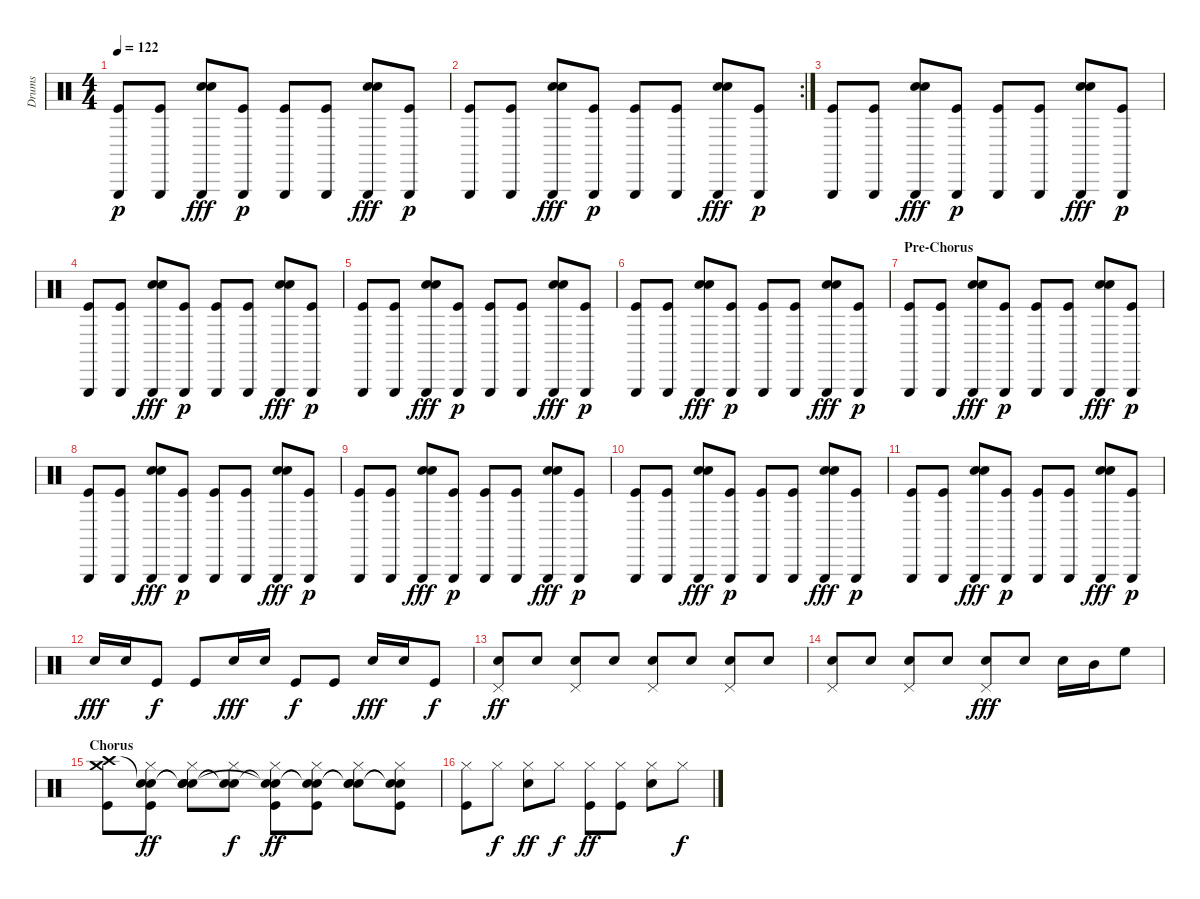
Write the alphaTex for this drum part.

\track ("Drums" "Drums") {instrument percussion}
\staff {score}
\articulation defaults
\ts (4 4)
\tempo 122
\clef neutral
\ks c
("Triangle (hit)" "Kick (hit)").8{dy p} ("Triangle (hit)" "Kick (hit)").8 ("Triangle (hit)" "Snare (hit) 2" "Hand Clap (hit)").8{dy fff} ("Triangle (hit)" "Kick (hit)").8{dy p} ("Triangle (hit)" "Kick (hit)").8 ("Triangle (hit)" "Kick (hit)").8 ("Triangle (hit)" "Snare (hit) 2" "Hand Clap (hit)").8{dy fff} ("Triangle (hit)" "Kick (hit)").8{dy p} |
\rc 2
("Triangle (hit)" "Kick (hit)").8 ("Triangle (hit)" "Kick (hit)").8 ("Triangle (hit)" "Snare (hit) 2" "Hand Clap (hit)").8{dy fff} ("Triangle (hit)" "Kick (hit)").8{dy p} ("Triangle (hit)" "Kick (hit)").8 ("Triangle (hit)" "Kick (hit)").8 ("Triangle (hit)" "Snare (hit) 2" "Hand Clap (hit)").8{dy fff} ("Triangle (hit)" "Kick (hit)").8{dy p} |
("Triangle (hit)" "Kick (hit)").8 ("Triangle (hit)" "Kick (hit)").8 ("Triangle (hit)" "Snare (hit) 2" "Hand Clap (hit)").8{dy fff} ("Triangle (hit)" "Kick (hit)").8{dy p} ("Triangle (hit)" "Kick (hit)").8 ("Triangle (hit)" "Kick (hit)").8 ("Triangle (hit)" "Snare (hit) 2" "Hand Clap (hit)").8{dy fff} ("Triangle (hit)" "Kick (hit)").8{dy p} |
("Triangle (hit)" "Kick (hit)").8 ("Triangle (hit)" "Kick (hit)").8 ("Triangle (hit)" "Snare (hit) 2" "Hand Clap (hit)").8{dy fff} ("Triangle (hit)" "Kick (hit)").8{dy p} ("Triangle (hit)" "Kick (hit)").8 ("Triangle (hit)" "Kick (hit)").8 ("Triangle (hit)" "Snare (hit) 2" "Hand Clap (hit)").8{dy fff} ("Triangle (hit)" "Kick (hit)").8{dy p} |
("Triangle (hit)" "Kick (hit)").8 ("Triangle (hit)" "Kick (hit)").8 ("Triangle (hit)" "Snare (hit) 2" "Hand Clap (hit)").8{dy fff} ("Triangle (hit)" "Kick (hit)").8{dy p} ("Triangle (hit)" "Kick (hit)").8 ("Triangle (hit)" "Kick (hit)").8 ("Triangle (hit)" "Snare (hit) 2" "Hand Clap (hit)").8{dy fff} ("Triangle (hit)" "Kick (hit)").8{dy p} |
("Triangle (hit)" "Kick (hit)").8 ("Triangle (hit)" "Kick (hit)").8 ("Triangle (hit)" "Snare (hit) 2" "Hand Clap (hit)").8{dy fff} ("Triangle (hit)" "Kick (hit)").8{dy p} ("Triangle (hit)" "Kick (hit)").8 ("Triangle (hit)" "Kick (hit)").8 ("Triangle (hit)" "Snare (hit) 2" "Hand Clap (hit)").8{dy fff} ("Triangle (hit)" "Kick (hit)").8{dy p} |
\section ("" "Pre-Chorus")
("Triangle (hit)" "Kick (hit)").8 ("Triangle (hit)" "Kick (hit)").8 ("Triangle (hit)" "Snare (hit) 2" "Hand Clap (hit)").8{dy fff} ("Triangle (hit)" "Kick (hit)").8{dy p} ("Triangle (hit)" "Kick (hit)").8 ("Triangle (hit)" "Kick (hit)").8 ("Triangle (hit)" "Snare (hit) 2" "Hand Clap (hit)").8{dy fff} ("Triangle (hit)" "Kick (hit)").8{dy p} |
("Triangle (hit)" "Kick (hit)").8 ("Triangle (hit)" "Kick (hit)").8 ("Triangle (hit)" "Snare (hit) 2" "Hand Clap (hit)").8{dy fff} ("Triangle (hit)" "Kick (hit)").8{dy p} ("Triangle (hit)" "Kick (hit)").8 ("Triangle (hit)" "Kick (hit)").8 ("Triangle (hit)" "Snare (hit) 2" "Hand Clap (hit)").8{dy fff} ("Triangle (hit)" "Kick (hit)").8{dy p} |
("Triangle (hit)" "Kick (hit)").8 ("Triangle (hit)" "Kick (hit)").8 ("Triangle (hit)" "Snare (hit) 2" "Hand Clap (hit)").8{dy fff} ("Triangle (hit)" "Kick (hit)").8{dy p} ("Triangle (hit)" "Kick (hit)").8 ("Triangle (hit)" "Kick (hit)").8 ("Triangle (hit)" "Snare (hit) 2" "Hand Clap (hit)").8{dy fff} ("Triangle (hit)" "Kick (hit)").8{dy p} |
("Triangle (hit)" "Kick (hit)").8 ("Triangle (hit)" "Kick (hit)").8 ("Triangle (hit)" "Snare (hit) 2" "Hand Clap (hit)").8{dy fff} ("Triangle (hit)" "Kick (hit)").8{dy p} ("Triangle (hit)" "Kick (hit)").8 ("Triangle (hit)" "Kick (hit)").8 ("Triangle (hit)" "Snare (hit) 2" "Hand Clap (hit)").8{dy fff} ("Triangle (hit)" "Kick (hit)").8{dy p} |
("Triangle (hit)" "Kick (hit)").8 ("Triangle (hit)" "Kick (hit)").8 ("Triangle (hit)" "Snare (hit) 2" "Hand Clap (hit)").8{dy fff} ("Triangle (hit)" "Kick (hit)").8{dy p} ("Triangle (hit)" "Kick (hit)").8 ("Triangle (hit)" "Kick (hit)").8 ("Triangle (hit)" "Snare (hit) 2" "Hand Clap (hit)").8{dy fff} ("Triangle (hit)" "Kick (hit)").8{dy p} |
"Snare (hit) 2".16{dy fff} "Snare (hit) 2".16 "Kick (hit)".8{dy f} "Kick (hit)".8 "Snare (hit) 2".16{dy fff} "Snare (hit) 2".16 "Kick (hit)".8{dy f} "Kick (hit)".8 "Snare (hit) 2".16{dy fff} "Snare (hit) 2".16 "Kick (hit)".8{dy f} |
("Pedal Hi-Hat (hit)" "Snare (hit) 2").8{dy ff} "Snare (hit) 2".8 ("Pedal Hi-Hat (hit)" "Snare (hit) 2").8 "Snare (hit) 2".8 ("Pedal Hi-Hat (hit)" "Snare (hit) 2").8 "Snare (hit) 2".8 ("Pedal Hi-Hat (hit)" "Snare (hit) 2").8 "Snare (hit) 2".8 |
("Pedal Hi-Hat (hit)" "Snare (hit) 2").8 "Snare (hit) 2".8 ("Pedal Hi-Hat (hit)" "Snare (hit) 2").8 "Snare (hit) 2".8 ("Pedal Hi-Hat (hit)" "Snare (hit) 2").8{dy fff} "Snare (hit) 2".8 "Snare (hit) 2".16 "Mid Tom (hit)".16 "High Floor Tom (hit)".8 |
\section ("" "Chorus")
("Kick (hit)" "Crash medium (hit)" "Crash high (hit)").8 ("Hi-Hat (closed)" "Kick (hit)" "Snare (hit)"{t} "Snare (hit)").8{dy ff} ("Hi-Hat (closed)" "Snare (hit) 2" "Snare (hit)"{t} "Snare (hit)"{t}).8 ("Hi-Hat (closed)" "Snare (hit)"{t} "Snare (hit)"{t}).8{dy f} ("Hi-Hat (closed)" "Kick (hit)" "Snare (hit)"{t} "Snare (hit)"{t}).8{dy ff} ("Hi-Hat (closed)" "Kick (hit)" "Snare (hit)"{t} "Snare (hit)"{t}).8 ("Hi-Hat (closed)" "Snare (hit) 2" "Snare (hit)"{t} "Snare (hit)"{t}).8 ("Hi-Hat (closed)" "Kick (hit)" "Snare (hit)"{t} "Snare (hit)"{t}).8 |
("Hi-Hat (closed)" "Kick (hit)").8 "Hi-Hat (closed)".8{dy f} ("Hi-Hat (closed)" "Snare (hit) 2").8{dy ff} "Hi-Hat (closed)".8{dy f} ("Hi-Hat (closed)" "Kick (hit)").8{dy ff} ("Hi-Hat (closed)" "Kick (hit)").8 ("Hi-Hat (closed)" "Snare (hit) 2").8 "Hi-Hat (closed)".8{dy f}
